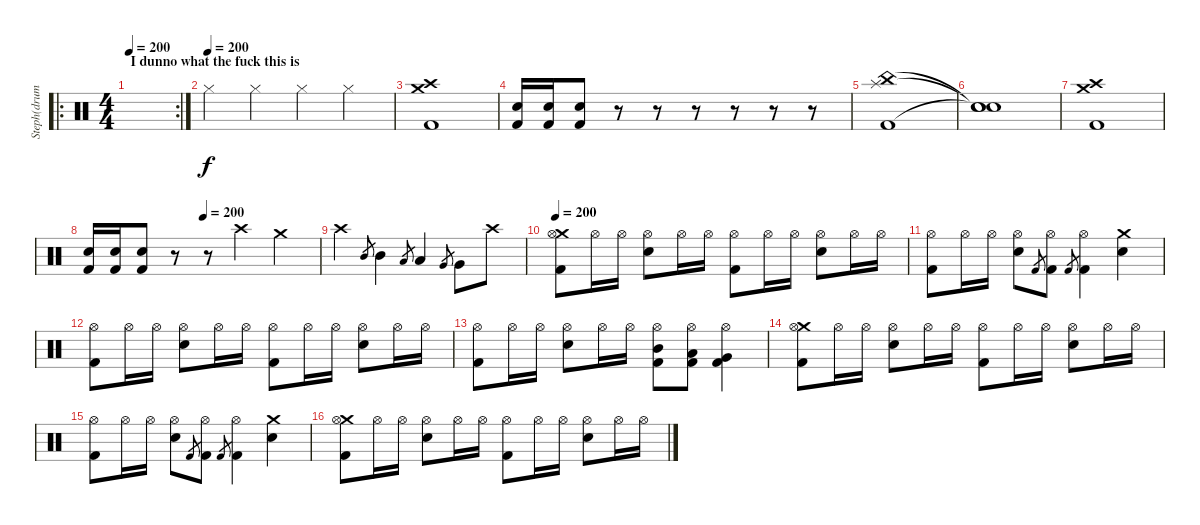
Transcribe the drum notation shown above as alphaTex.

\track ("Steph(drums)" "Steph(drum") {instrument percussion}
\staff {score}
\articulation defaults
\ro
\rc 2
\ts (4 4)
\section ("" "I dunno what the fuck this is")
\tempo 200
\tempo 10
\tempo 200
\clef neutral
\ks c
|
\tempo (200)
"Hi-Hat (closed)".4 "Hi-Hat (closed)".4 "Hi-Hat (closed)".4 "Hi-Hat (closed)".4 |
("Kick (hit) 2" "Crash medium (hit)" "Crash high (hit)").1 |
("Electric Snare (hit)" "Kick (hit) 2").16 ("Electric Snare (hit)" "Kick (hit) 2").16 ("Electric Snare (hit)" "Kick (hit) 2").8 r.8 r.8 r.8 r.8 r.8 r.8 |
("Kick (hit) 2" "Splash (hit)" "China (hit)").1 |
("Snare (hit)"{t} "Snare (hit)"{t} "Snare (hit)"{t}).1 |
("Kick (hit) 2" "Crash medium (hit)" "Crash high (hit)").1 |
\tempo (200 0.5)
("Electric Snare (hit)" "Kick (hit) 2").16 ("Electric Snare (hit)" "Kick (hit) 2").16 ("Electric Snare (hit)" "Kick (hit) 2").8 r.8 r.8 "Crash high (hit)".4 "Crash medium (hit)".4 |
"Crash high (hit)".4 "Mid Tom (hit)".8{gr} "Mid Tom (hit)".4 "Low Tom (hit)".8{gr} "Low Tom (hit)".4 "Very Low Tom (hit)".8{gr} "Very Low Tom (hit)".8 "Crash high (hit)".8 |
\tempo 200
("Crash medium (hit)" "Hi-Hat (open)" "Kick (hit) 2").8 "Hi-Hat (open)".16 "Hi-Hat (open)".16 ("Hi-Hat (open)" "Electric Snare (hit)").8 "Hi-Hat (open)".16 "Hi-Hat (open)".16 ("Hi-Hat (open)" "Kick (hit) 2").8 "Hi-Hat (open)".16 "Hi-Hat (open)".16 ("Hi-Hat (open)" "Electric Snare (hit)").8 "Hi-Hat (open)".16 "Hi-Hat (open)".16 |
("Hi-Hat (open)" "Kick (hit) 2").8 "Hi-Hat (open)".16 "Hi-Hat (open)".16 ("Hi-Hat (open)" "Electric Snare (hit)").8 "Kick (hit) 2".8{gr} ("Hi-Hat (open)" "Kick (hit) 2").8 "Kick (hit) 2".8{gr} ("Hi-Hat (open)" "Kick (hit) 2").4 ("Crash medium (hit)" "Electric Snare (hit)").4 |
("Hi-Hat (open)" "Kick (hit) 2").8 "Hi-Hat (open)".16 "Hi-Hat (open)".16 ("Hi-Hat (open)" "Electric Snare (hit)").8 "Hi-Hat (open)".16 "Hi-Hat (open)".16 ("Hi-Hat (open)" "Kick (hit) 2").8 "Hi-Hat (open)".16 "Hi-Hat (open)".16 ("Hi-Hat (open)" "Electric Snare (hit)").8 "Hi-Hat (open)".16 "Hi-Hat (open)".16 |
("Hi-Hat (open)" "Kick (hit) 2").8 "Hi-Hat (open)".16 "Hi-Hat (open)".16 ("Hi-Hat (open)" "Electric Snare (hit)").8 "Hi-Hat (open)".16 "Hi-Hat (open)".16 ("Mid Tom (hit)" "Hi-Hat (open)" "Kick (hit) 2").8 ("Low Tom (hit)" "Hi-Hat (open)" "Kick (hit) 2").8 ("Very Low Tom (hit)" "Hi-Hat (open)" "Kick (hit) 2").4 |
("Crash medium (hit)" "Hi-Hat (open)" "Kick (hit) 2").8 "Hi-Hat (open)".16 "Hi-Hat (open)".16 ("Hi-Hat (open)" "Electric Snare (hit)").8 "Hi-Hat (open)".16 "Hi-Hat (open)".16 ("Hi-Hat (open)" "Kick (hit) 2").8 "Hi-Hat (open)".16 "Hi-Hat (open)".16 ("Hi-Hat (open)" "Electric Snare (hit)").8 "Hi-Hat (open)".16 "Hi-Hat (open)".16 |
("Hi-Hat (open)" "Kick (hit) 2").8 "Hi-Hat (open)".16 "Hi-Hat (open)".16 ("Hi-Hat (open)" "Electric Snare (hit)").8 "Kick (hit) 2".8{gr} ("Hi-Hat (open)" "Kick (hit) 2").8 "Kick (hit) 2".8{gr} ("Hi-Hat (open)" "Kick (hit) 2").4 ("Crash medium (hit)" "Electric Snare (hit)").4 |
("Crash medium (hit)" "Hi-Hat (open)" "Kick (hit) 2").8 "Hi-Hat (open)".16 "Hi-Hat (open)".16 ("Hi-Hat (open)" "Electric Snare (hit)").8 "Hi-Hat (open)".16 "Hi-Hat (open)".16 ("Hi-Hat (open)" "Kick (hit) 2").8 "Hi-Hat (open)".16 "Hi-Hat (open)".16 ("Hi-Hat (open)" "Electric Snare (hit)").8 "Hi-Hat (open)".16 "Hi-Hat (open)".16
